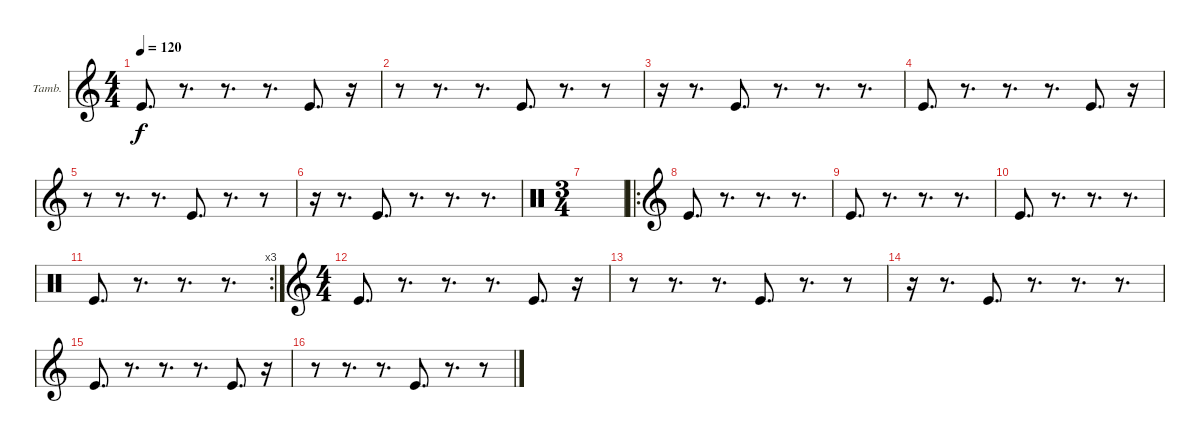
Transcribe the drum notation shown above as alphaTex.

\defaultSystemsLayout 4
\bracketExtendMode groupsimilarinstruments
\firstSystemTrackNameOrientation horizontal
\otherSystemsTrackNameOrientation horizontal
\track ("Tambourine" "Tamb.") {instrument percussion}
\staff {score}
\articulation defaults
\ts (4 4)
\tempo 120
\clef g2
\ks c "Kick (hit)".8{d dy f}
r.8{d} r.8{d} r.8{d} "Kick (hit)".8{d} r.16 |
r.8 r.8{d} r.8{d} "Kick (hit)".8{d} r.8{d} r.8 |
r.16 r.8{d} "Kick (hit)".8{d} r.8{d} r.8{d} r.8{d} |
"Kick (hit)".8{d} r.8{d} r.8{d} r.8{d} "Kick (hit)".8{d} r.16 |
r.8 r.8{d} r.8{d} "Kick (hit)".8{d} r.8{d} r.8 |
r.16 r.8{d} "Kick (hit)".8{d} r.8{d} r.8{d} r.8{d} |
\ts (3 4)
\clef neutral
|
\ro
\clef g2 "Kick (hit)".8{d}
r.8{d} r.8{d} r.8{d} |
"Kick (hit)".8{d} r.8{d} r.8{d} r.8{d} |
"Kick (hit)".8{d} r.8{d} r.8{d} r.8{d} |
\rc 3
\clef neutral "Kick (hit)".8{d}
r.8{d} r.8{d} r.8{d} |
\ts (4 4)
\clef g2 "Kick (hit)".8{d}
r.8{d} r.8{d} r.8{d} "Kick (hit)".8{d} r.16 |
r.8 r.8{d} r.8{d} "Kick (hit)".8{d} r.8{d} r.8 |
r.16 r.8{d} "Kick (hit)".8{d} r.8{d} r.8{d} r.8{d} |
"Kick (hit)".8{d} r.8{d} r.8{d} r.8{d} "Kick (hit)".8{d} r.16 |
r.8 r.8{d} r.8{d} "Kick (hit)".8{d} r.8{d} r.8
